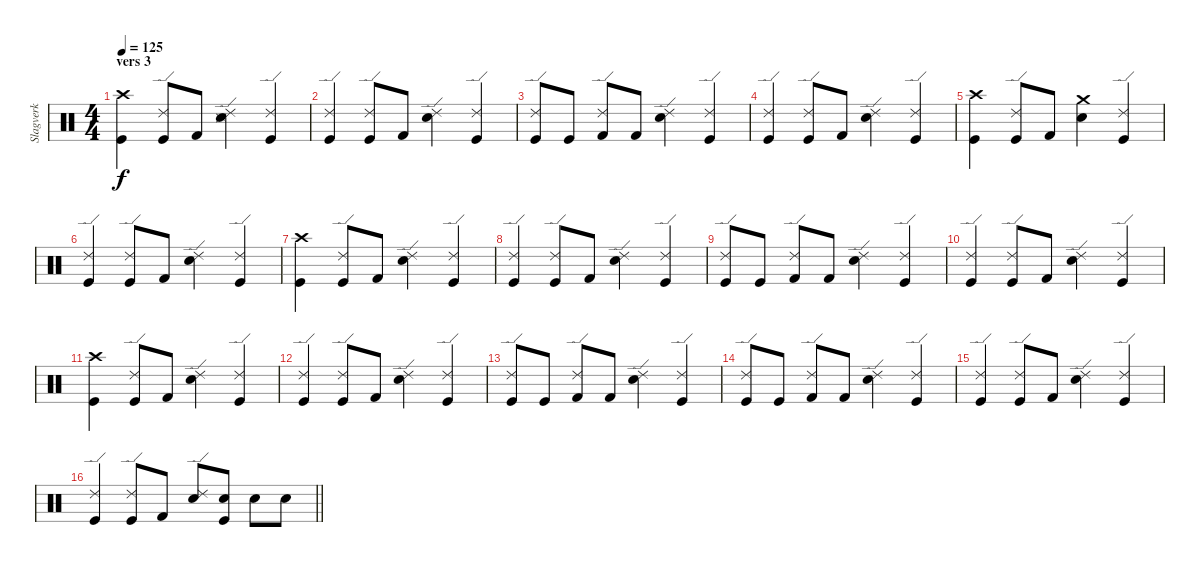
\track ("Slagverk" "Slagverk") {instrument percussion}
\staff {score}
\articulation defaults
\ts (4 4)
\section ("" "vers 3")
\tempo 125
\clef neutral
\ks c
("Crash high (hit)" "Kick (hit)").4{dy f} ("Ride (edge) 2" "Kick (hit)").8 "Kick (hit) 2".8 ("Ride (edge) 2" "Snare (side stick) 3" "Snare (hit) 2").4 ("Ride (edge) 2" "Kick (hit)").4 |
("Ride (edge) 2" "Kick (hit)").4 ("Ride (edge) 2" "Kick (hit)").8 "Kick (hit) 2".8 ("Ride (edge) 2" "Snare (hit) 2").4 ("Ride (edge) 2" "Kick (hit)").4 |
("Ride (edge) 2" "Kick (hit)").8 "Kick (hit)".8 ("Ride (edge) 2" "Kick (hit) 2").8 "Kick (hit) 2".8 ("Ride (edge) 2" "Snare (hit) 2").4 ("Ride (edge) 2" "Kick (hit)").4 |
("Ride (edge) 2" "Kick (hit)").4 ("Ride (edge) 2" "Kick (hit)").8 "Kick (hit) 2".8 ("Ride (edge) 2" "Snare (hit) 2").4 ("Ride (edge) 2" "Kick (hit)").4 |
("Crash high (hit)" "Kick (hit)").4 ("Ride (edge) 2" "Kick (hit)").8 "Kick (hit) 2".8 ("Crash medium (hit)" "Snare (hit) 2").4 ("Ride (edge) 2" "Kick (hit)").4 |
("Ride (edge) 2" "Kick (hit)").4 ("Ride (edge) 2" "Kick (hit)").8 "Kick (hit) 2".8 ("Ride (edge) 2" "Snare (hit) 2").4 ("Ride (edge) 2" "Kick (hit)").4 |
("Crash high (hit)" "Kick (hit)").4 ("Ride (edge) 2" "Kick (hit)").8 "Kick (hit) 2".8 ("Ride (edge) 2" "Snare (hit) 2").4 ("Ride (edge) 2" "Kick (hit)").4 |
("Ride (edge) 2" "Kick (hit)").4 ("Ride (edge) 2" "Kick (hit)").8 "Kick (hit) 2".8 ("Ride (edge) 2" "Snare (hit) 2").4 ("Ride (edge) 2" "Kick (hit)").4 |
("Ride (edge) 2" "Kick (hit)").8 "Kick (hit)".8 ("Ride (edge) 2" "Kick (hit) 2").8 "Kick (hit) 2".8 ("Ride (edge) 2" "Snare (hit) 2").4 ("Ride (edge) 2" "Kick (hit)").4 |
("Ride (edge) 2" "Kick (hit)").4 ("Ride (edge) 2" "Kick (hit)").8 "Kick (hit) 2".8 ("Ride (edge) 2" "Snare (hit) 2").4 ("Ride (edge) 2" "Kick (hit)").4 |
("Crash high (hit)" "Kick (hit)").4 ("Ride (edge) 2" "Kick (hit)").8 "Kick (hit) 2".8 ("Ride (edge) 2" "Snare (hit) 2").4 ("Ride (edge) 2" "Kick (hit)").4 |
("Ride (edge) 2" "Kick (hit)").4 ("Ride (edge) 2" "Kick (hit)").8 "Kick (hit) 2".8 ("Ride (edge) 2" "Snare (hit) 2").4 ("Ride (edge) 2" "Kick (hit)").4 |
("Ride (edge) 2" "Kick (hit)").8 "Kick (hit)".8 ("Ride (edge) 2" "Kick (hit) 2").8 "Kick (hit) 2".8 ("Ride (edge) 2" "Snare (hit) 2").4 ("Ride (edge) 2" "Kick (hit)").4 |
("Ride (edge) 2" "Kick (hit)").8 "Kick (hit)".8 ("Ride (edge) 2" "Kick (hit) 2").8 "Kick (hit) 2".8 ("Ride (edge) 2" "Snare (hit) 2").4 ("Ride (edge) 2" "Kick (hit)").4 |
("Ride (edge) 2" "Kick (hit)").4 ("Ride (edge) 2" "Kick (hit)").8 "Kick (hit) 2".8 ("Ride (edge) 2" "Snare (hit) 2").4 ("Ride (edge) 2" "Kick (hit)").4 |
\barLineRight lightlight
("Ride (edge) 2" "Kick (hit)").4 ("Ride (edge) 2" "Kick (hit)").8 "Kick (hit) 2".8 ("Ride (edge) 2" "Snare (hit) 2").8 ("Snare (hit) 2" "Kick (hit)").8 "Snare (hit) 2".8 "Snare (hit) 2".8
